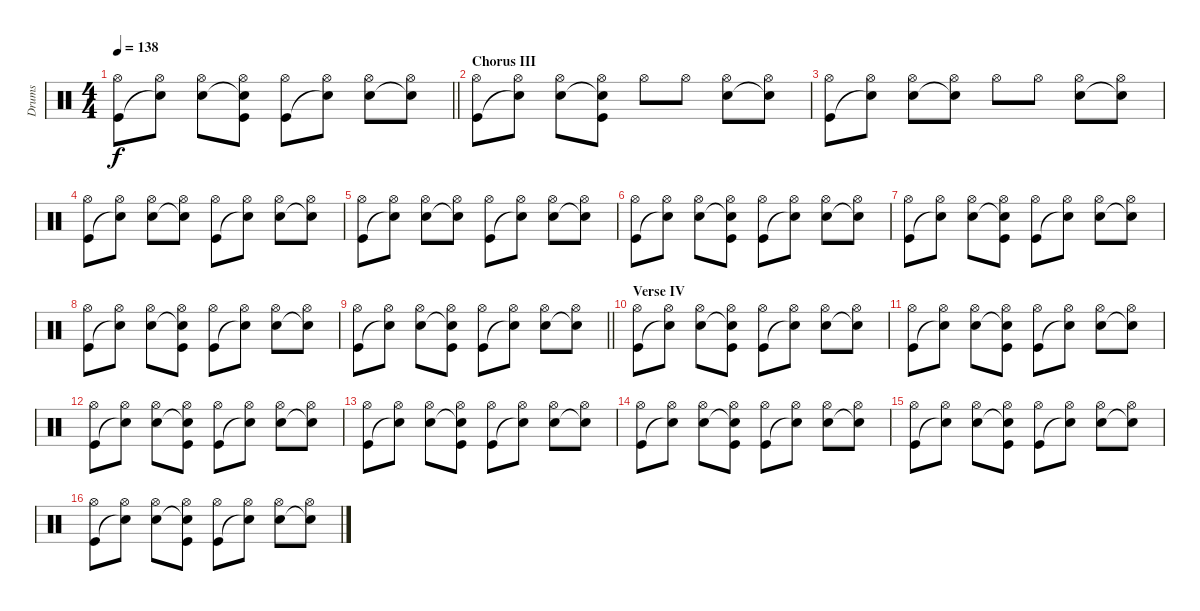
\track ("Drums" "Drums") {instrument percussion}
\staff {score}
\articulation defaults
\ts (4 4)
\tempo 138
\clef neutral
\barLineRight lightlight
\ks c
("Hi-Hat (open)" "Kick (hit)").8{dy f} ("Hi-Hat (open)" "Snare (hit)"{t}).8 ("Hi-Hat (open)" "Snare (hit) 2").8 ("Hi-Hat (open)" "Snare (hit)"{t} "Kick (hit)").8 ("Hi-Hat (open)" "Kick (hit)").8 ("Hi-Hat (open)" "Snare (hit)"{t}).8 ("Hi-Hat (open)" "Snare (hit) 2").8 ("Hi-Hat (open)" "Snare (hit)"{t}).8 |
\section ("" "Chorus III")
("Hi-Hat (open)" "Kick (hit)").8 ("Hi-Hat (open)" "Snare (hit)"{t}).8 ("Hi-Hat (open)" "Snare (hit) 2").8 ("Hi-Hat (open)" "Snare (hit)"{t} "Kick (hit)").8 "Hi-Hat (open)".8 "Hi-Hat (open)".8 ("Hi-Hat (open)" "Snare (hit) 2").8 ("Hi-Hat (open)" "Snare (hit)"{t}).8 |
("Hi-Hat (open)" "Kick (hit)").8 ("Hi-Hat (open)" "Snare (hit)"{t}).8 ("Hi-Hat (open)" "Snare (hit) 2").8 ("Hi-Hat (open)" "Snare (hit)"{t}).8 "Hi-Hat (open)".8 "Hi-Hat (open)".8 ("Hi-Hat (open)" "Snare (hit) 2").8 ("Hi-Hat (open)" "Snare (hit)"{t}).8 |
("Hi-Hat (open)" "Kick (hit)").8 ("Hi-Hat (open)" "Snare (hit)"{t}).8 ("Hi-Hat (open)" "Snare (hit) 2").8 ("Hi-Hat (open)" "Snare (hit)"{t}).8 ("Hi-Hat (open)" "Kick (hit)").8 ("Hi-Hat (open)" "Snare (hit)"{t}).8 ("Hi-Hat (open)" "Snare (hit) 2").8 ("Hi-Hat (open)" "Snare (hit)"{t}).8 |
("Hi-Hat (open)" "Kick (hit)").8 ("Hi-Hat (open)" "Snare (hit)"{t}).8 ("Hi-Hat (open)" "Snare (hit) 2").8 ("Hi-Hat (open)" "Snare (hit)"{t}).8 ("Hi-Hat (open)" "Kick (hit)").8 ("Hi-Hat (open)" "Snare (hit)"{t}).8 ("Hi-Hat (open)" "Snare (hit) 2").8 ("Hi-Hat (open)" "Snare (hit)"{t}).8 |
("Hi-Hat (open)" "Kick (hit)").8 ("Hi-Hat (open)" "Snare (hit)"{t}).8 ("Hi-Hat (open)" "Snare (hit) 2").8 ("Hi-Hat (open)" "Snare (hit)"{t} "Kick (hit)").8 ("Hi-Hat (open)" "Kick (hit)").8 ("Hi-Hat (open)" "Snare (hit)"{t}).8 ("Hi-Hat (open)" "Snare (hit) 2").8 ("Hi-Hat (open)" "Snare (hit)"{t}).8 |
("Hi-Hat (open)" "Kick (hit)").8 ("Hi-Hat (open)" "Snare (hit)"{t}).8 ("Hi-Hat (open)" "Snare (hit) 2").8 ("Hi-Hat (open)" "Snare (hit)"{t} "Kick (hit)").8 ("Hi-Hat (open)" "Kick (hit)").8 ("Hi-Hat (open)" "Snare (hit)"{t}).8 ("Hi-Hat (open)" "Snare (hit) 2").8 ("Hi-Hat (open)" "Snare (hit)"{t}).8 |
("Hi-Hat (open)" "Kick (hit)").8 ("Hi-Hat (open)" "Snare (hit)"{t}).8 ("Hi-Hat (open)" "Snare (hit) 2").8 ("Hi-Hat (open)" "Snare (hit)"{t} "Kick (hit)").8 ("Hi-Hat (open)" "Kick (hit)").8 ("Hi-Hat (open)" "Snare (hit)"{t}).8 ("Hi-Hat (open)" "Snare (hit) 2").8 ("Hi-Hat (open)" "Snare (hit)"{t}).8 |
\barLineRight lightlight
("Hi-Hat (open)" "Kick (hit)").8 ("Hi-Hat (open)" "Snare (hit)"{t}).8 ("Hi-Hat (open)" "Snare (hit) 2").8 ("Hi-Hat (open)" "Snare (hit)"{t} "Kick (hit)").8 ("Hi-Hat (open)" "Kick (hit)").8 ("Hi-Hat (open)" "Snare (hit)"{t}).8 ("Hi-Hat (open)" "Snare (hit) 2").8 ("Hi-Hat (open)" "Snare (hit)"{t}).8 |
\section ("" "Verse IV")
("Hi-Hat (open)" "Kick (hit)").8 ("Hi-Hat (open)" "Snare (hit)"{t}).8 ("Hi-Hat (open)" "Snare (hit) 2").8 ("Hi-Hat (open)" "Snare (hit)"{t} "Kick (hit)").8 ("Hi-Hat (open)" "Kick (hit)").8 ("Hi-Hat (open)" "Snare (hit)"{t}).8 ("Hi-Hat (open)" "Snare (hit) 2").8 ("Hi-Hat (open)" "Snare (hit)"{t}).8 |
("Hi-Hat (open)" "Kick (hit)").8 ("Hi-Hat (open)" "Snare (hit)"{t}).8 ("Hi-Hat (open)" "Snare (hit) 2").8 ("Hi-Hat (open)" "Snare (hit)"{t} "Kick (hit)").8 ("Hi-Hat (open)" "Kick (hit)").8 ("Hi-Hat (open)" "Snare (hit)"{t}).8 ("Hi-Hat (open)" "Snare (hit) 2").8 ("Hi-Hat (open)" "Snare (hit)"{t}).8 |
("Hi-Hat (open)" "Kick (hit)").8 ("Hi-Hat (open)" "Snare (hit)"{t}).8 ("Hi-Hat (open)" "Snare (hit) 2").8 ("Hi-Hat (open)" "Snare (hit)"{t} "Kick (hit)").8 ("Hi-Hat (open)" "Kick (hit)").8 ("Hi-Hat (open)" "Snare (hit)"{t}).8 ("Hi-Hat (open)" "Snare (hit) 2").8 ("Hi-Hat (open)" "Snare (hit)"{t}).8 |
("Hi-Hat (open)" "Kick (hit)").8 ("Hi-Hat (open)" "Snare (hit)"{t}).8 ("Hi-Hat (open)" "Snare (hit) 2").8 ("Hi-Hat (open)" "Snare (hit)"{t} "Kick (hit)").8 ("Hi-Hat (open)" "Kick (hit)").8 ("Hi-Hat (open)" "Snare (hit)"{t}).8 ("Hi-Hat (open)" "Snare (hit) 2").8 ("Hi-Hat (open)" "Snare (hit)"{t}).8 |
("Hi-Hat (open)" "Kick (hit)").8 ("Hi-Hat (open)" "Snare (hit)"{t}).8 ("Hi-Hat (open)" "Snare (hit) 2").8 ("Hi-Hat (open)" "Snare (hit)"{t} "Kick (hit)").8 ("Hi-Hat (open)" "Kick (hit)").8 ("Hi-Hat (open)" "Snare (hit)"{t}).8 ("Hi-Hat (open)" "Snare (hit) 2").8 ("Hi-Hat (open)" "Snare (hit)"{t}).8 |
("Hi-Hat (open)" "Kick (hit)").8 ("Hi-Hat (open)" "Snare (hit)"{t}).8 ("Hi-Hat (open)" "Snare (hit) 2").8 ("Hi-Hat (open)" "Snare (hit)"{t} "Kick (hit)").8 ("Hi-Hat (open)" "Kick (hit)").8 ("Hi-Hat (open)" "Snare (hit)"{t}).8 ("Hi-Hat (open)" "Snare (hit) 2").8 ("Hi-Hat (open)" "Snare (hit)"{t}).8 |
("Hi-Hat (open)" "Kick (hit)").8 ("Hi-Hat (open)" "Snare (hit)"{t}).8 ("Hi-Hat (open)" "Snare (hit) 2").8 ("Hi-Hat (open)" "Snare (hit)"{t} "Kick (hit)").8 ("Hi-Hat (open)" "Kick (hit)").8 ("Hi-Hat (open)" "Snare (hit)"{t}).8 ("Hi-Hat (open)" "Snare (hit) 2").8 ("Hi-Hat (open)" "Snare (hit)"{t}).8
